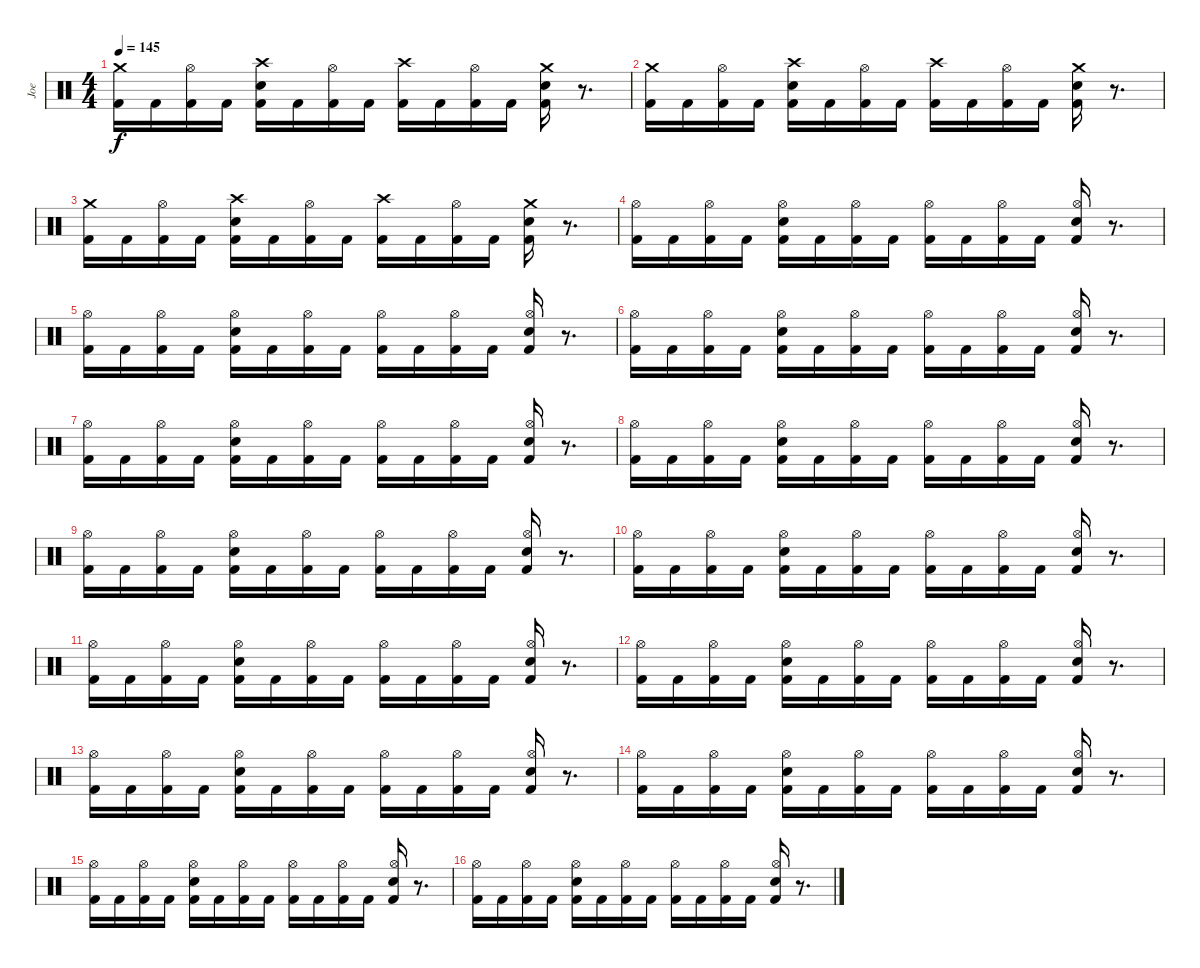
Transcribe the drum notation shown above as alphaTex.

\track ("Joe" "Joe") {instrument percussion}
\staff {score}
\articulation defaults
\ts (4 4)
\tempo 145
\clef neutral
\ks c
("Crash medium (hit)" "Kick (hit) 2").16{dy f} "Kick (hit) 2".16 ("Hi-Hat (open)" "Kick (hit) 2").16 "Kick (hit) 2".16 ("Crash high (hit)" "Snare (hit) 2" "Kick (hit) 2").16 "Kick (hit) 2".16 ("Hi-Hat (open)" "Kick (hit) 2").16 "Kick (hit) 2".16 ("Crash high (hit)" "Kick (hit) 2").16 "Kick (hit) 2".16 ("Hi-Hat (open)" "Kick (hit) 2").16 "Kick (hit) 2".16 ("Crash medium (hit)" "Snare (hit) 2" "Kick (hit) 2").16 r.8{d} |
("Crash medium (hit)" "Kick (hit) 2").16 "Kick (hit) 2".16 ("Hi-Hat (open)" "Kick (hit) 2").16 "Kick (hit) 2".16 ("Crash high (hit)" "Snare (hit) 2" "Kick (hit) 2").16 "Kick (hit) 2".16 ("Hi-Hat (open)" "Kick (hit) 2").16 "Kick (hit) 2".16 ("Crash high (hit)" "Kick (hit) 2").16 "Kick (hit) 2".16 ("Hi-Hat (open)" "Kick (hit) 2").16 "Kick (hit) 2".16 ("Crash medium (hit)" "Snare (hit) 2" "Kick (hit) 2").16 r.8{d} |
("Crash medium (hit)" "Kick (hit) 2").16 "Kick (hit) 2".16 ("Hi-Hat (open)" "Kick (hit) 2").16 "Kick (hit) 2".16 ("Crash high (hit)" "Snare (hit) 2" "Kick (hit) 2").16 "Kick (hit) 2".16 ("Hi-Hat (open)" "Kick (hit) 2").16 "Kick (hit) 2".16 ("Crash high (hit)" "Kick (hit) 2").16 "Kick (hit) 2".16 ("Hi-Hat (open)" "Kick (hit) 2").16 "Kick (hit) 2".16 ("Crash medium (hit)" "Snare (hit) 2" "Kick (hit) 2").16 r.8{d} |
\section ("" "")
("Hi-Hat (open)" "Kick (hit) 2").16 "Kick (hit) 2".16 ("Hi-Hat (open)" "Kick (hit) 2").16 "Kick (hit) 2".16 ("Hi-Hat (open)" "Snare (hit) 2" "Kick (hit) 2").16 "Kick (hit) 2".16 ("Hi-Hat (open)" "Kick (hit) 2").16 "Kick (hit) 2".16 ("Hi-Hat (open)" "Kick (hit) 2").16 "Kick (hit) 2".16 ("Hi-Hat (open)" "Kick (hit) 2").16 "Kick (hit) 2".16 ("Hi-Hat (open)" "Snare (hit) 2" "Kick (hit) 2").16 r.8{d} |
("Hi-Hat (open)" "Kick (hit) 2").16 "Kick (hit) 2".16 ("Hi-Hat (open)" "Kick (hit) 2").16 "Kick (hit) 2".16 ("Hi-Hat (open)" "Snare (hit) 2" "Kick (hit) 2").16 "Kick (hit) 2".16 ("Hi-Hat (open)" "Kick (hit) 2").16 "Kick (hit) 2".16 ("Hi-Hat (open)" "Kick (hit) 2").16 "Kick (hit) 2".16 ("Hi-Hat (open)" "Kick (hit) 2").16 "Kick (hit) 2".16 ("Hi-Hat (open)" "Snare (hit) 2" "Kick (hit) 2").16 r.8{d} |
("Hi-Hat (open)" "Kick (hit) 2").16 "Kick (hit) 2".16 ("Hi-Hat (open)" "Kick (hit) 2").16 "Kick (hit) 2".16 ("Hi-Hat (open)" "Snare (hit) 2" "Kick (hit) 2").16 "Kick (hit) 2".16 ("Hi-Hat (open)" "Kick (hit) 2").16 "Kick (hit) 2".16 ("Hi-Hat (open)" "Kick (hit) 2").16 "Kick (hit) 2".16 ("Hi-Hat (open)" "Kick (hit) 2").16 "Kick (hit) 2".16 ("Hi-Hat (open)" "Snare (hit) 2" "Kick (hit) 2").16 r.8{d} |
("Hi-Hat (open)" "Kick (hit) 2").16 "Kick (hit) 2".16 ("Hi-Hat (open)" "Kick (hit) 2").16 "Kick (hit) 2".16 ("Hi-Hat (open)" "Snare (hit) 2" "Kick (hit) 2").16 "Kick (hit) 2".16 ("Hi-Hat (open)" "Kick (hit) 2").16 "Kick (hit) 2".16 ("Hi-Hat (open)" "Kick (hit) 2").16 "Kick (hit) 2".16 ("Hi-Hat (open)" "Kick (hit) 2").16 "Kick (hit) 2".16 ("Hi-Hat (open)" "Snare (hit) 2" "Kick (hit) 2").16 r.8{d} |
("Hi-Hat (open)" "Kick (hit) 2").16 "Kick (hit) 2".16 ("Hi-Hat (open)" "Kick (hit) 2").16 "Kick (hit) 2".16 ("Hi-Hat (open)" "Snare (hit) 2" "Kick (hit) 2").16 "Kick (hit) 2".16 ("Hi-Hat (open)" "Kick (hit) 2").16 "Kick (hit) 2".16 ("Hi-Hat (open)" "Kick (hit) 2").16 "Kick (hit) 2".16 ("Hi-Hat (open)" "Kick (hit) 2").16 "Kick (hit) 2".16 ("Hi-Hat (open)" "Snare (hit) 2" "Kick (hit) 2").16 r.8{d} |
("Hi-Hat (open)" "Kick (hit) 2").16 "Kick (hit) 2".16 ("Hi-Hat (open)" "Kick (hit) 2").16 "Kick (hit) 2".16 ("Hi-Hat (open)" "Snare (hit) 2" "Kick (hit) 2").16 "Kick (hit) 2".16 ("Hi-Hat (open)" "Kick (hit) 2").16 "Kick (hit) 2".16 ("Hi-Hat (open)" "Kick (hit) 2").16 "Kick (hit) 2".16 ("Hi-Hat (open)" "Kick (hit) 2").16 "Kick (hit) 2".16 ("Hi-Hat (open)" "Snare (hit) 2" "Kick (hit) 2").16 r.8{d} |
("Hi-Hat (open)" "Kick (hit) 2").16 "Kick (hit) 2".16 ("Hi-Hat (open)" "Kick (hit) 2").16 "Kick (hit) 2".16 ("Hi-Hat (open)" "Snare (hit) 2" "Kick (hit) 2").16 "Kick (hit) 2".16 ("Hi-Hat (open)" "Kick (hit) 2").16 "Kick (hit) 2".16 ("Hi-Hat (open)" "Kick (hit) 2").16 "Kick (hit) 2".16 ("Hi-Hat (open)" "Kick (hit) 2").16 "Kick (hit) 2".16 ("Hi-Hat (open)" "Snare (hit) 2" "Kick (hit) 2").16 r.8{d} |
("Hi-Hat (open)" "Kick (hit) 2").16 "Kick (hit) 2".16 ("Hi-Hat (open)" "Kick (hit) 2").16 "Kick (hit) 2".16 ("Hi-Hat (open)" "Snare (hit) 2" "Kick (hit) 2").16 "Kick (hit) 2".16 ("Hi-Hat (open)" "Kick (hit) 2").16 "Kick (hit) 2".16 ("Hi-Hat (open)" "Kick (hit) 2").16 "Kick (hit) 2".16 ("Hi-Hat (open)" "Kick (hit) 2").16 "Kick (hit) 2".16 ("Hi-Hat (open)" "Snare (hit) 2" "Kick (hit) 2").16 r.8{d} |
("Hi-Hat (open)" "Kick (hit) 2").16 "Kick (hit) 2".16 ("Hi-Hat (open)" "Kick (hit) 2").16 "Kick (hit) 2".16 ("Hi-Hat (open)" "Snare (hit) 2" "Kick (hit) 2").16 "Kick (hit) 2".16 ("Hi-Hat (open)" "Kick (hit) 2").16 "Kick (hit) 2".16 ("Hi-Hat (open)" "Kick (hit) 2").16 "Kick (hit) 2".16 ("Hi-Hat (open)" "Kick (hit) 2").16 "Kick (hit) 2".16 ("Hi-Hat (open)" "Snare (hit) 2" "Kick (hit) 2").16 r.8{d} |
("Hi-Hat (open)" "Kick (hit) 2").16 "Kick (hit) 2".16 ("Hi-Hat (open)" "Kick (hit) 2").16 "Kick (hit) 2".16 ("Hi-Hat (open)" "Snare (hit) 2" "Kick (hit) 2").16 "Kick (hit) 2".16 ("Hi-Hat (open)" "Kick (hit) 2").16 "Kick (hit) 2".16 ("Hi-Hat (open)" "Kick (hit) 2").16 "Kick (hit) 2".16 ("Hi-Hat (open)" "Kick (hit) 2").16 "Kick (hit) 2".16 ("Hi-Hat (open)" "Snare (hit) 2" "Kick (hit) 2").16 r.8{d} |
("Hi-Hat (open)" "Kick (hit) 2").16 "Kick (hit) 2".16 ("Hi-Hat (open)" "Kick (hit) 2").16 "Kick (hit) 2".16 ("Hi-Hat (open)" "Snare (hit) 2" "Kick (hit) 2").16 "Kick (hit) 2".16 ("Hi-Hat (open)" "Kick (hit) 2").16 "Kick (hit) 2".16 ("Hi-Hat (open)" "Kick (hit) 2").16 "Kick (hit) 2".16 ("Hi-Hat (open)" "Kick (hit) 2").16 "Kick (hit) 2".16 ("Hi-Hat (open)" "Snare (hit) 2" "Kick (hit) 2").16 r.8{d} |
("Hi-Hat (open)" "Kick (hit) 2").16 "Kick (hit) 2".16 ("Hi-Hat (open)" "Kick (hit) 2").16 "Kick (hit) 2".16 ("Hi-Hat (open)" "Snare (hit) 2" "Kick (hit) 2").16 "Kick (hit) 2".16 ("Hi-Hat (open)" "Kick (hit) 2").16 "Kick (hit) 2".16 ("Hi-Hat (open)" "Kick (hit) 2").16 "Kick (hit) 2".16 ("Hi-Hat (open)" "Kick (hit) 2").16 "Kick (hit) 2".16 ("Hi-Hat (open)" "Snare (hit) 2" "Kick (hit) 2").16 r.8{d} |
("Hi-Hat (open)" "Kick (hit) 2").16 "Kick (hit) 2".16 ("Hi-Hat (open)" "Kick (hit) 2").16 "Kick (hit) 2".16 ("Hi-Hat (open)" "Snare (hit) 2" "Kick (hit) 2").16 "Kick (hit) 2".16 ("Hi-Hat (open)" "Kick (hit) 2").16 "Kick (hit) 2".16 ("Hi-Hat (open)" "Kick (hit) 2").16 "Kick (hit) 2".16 ("Hi-Hat (open)" "Kick (hit) 2").16 "Kick (hit) 2".16 ("Hi-Hat (open)" "Snare (hit) 2" "Kick (hit) 2").16 r.8{d}
